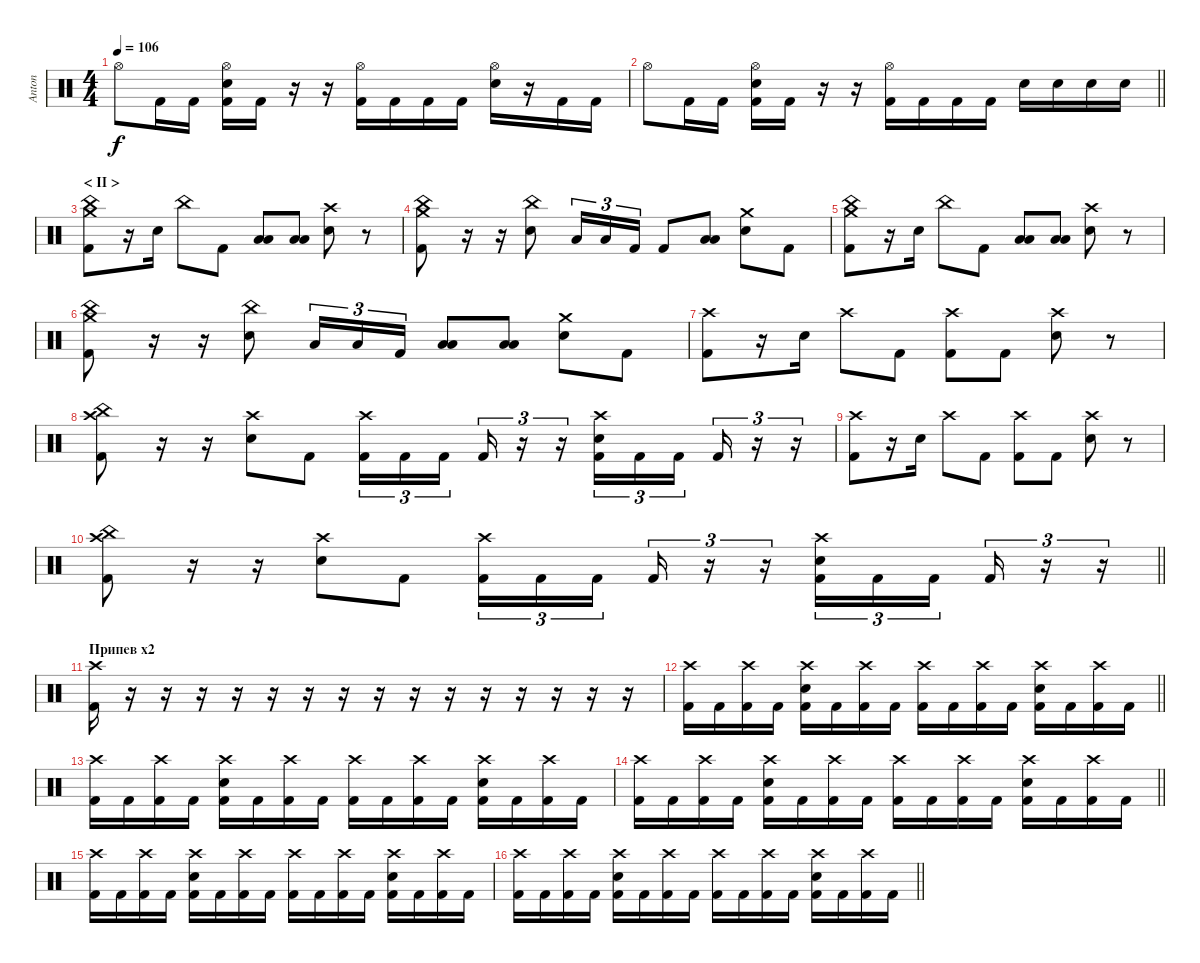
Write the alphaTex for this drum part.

\track ("Anton" "Anton") {instrument percussion}
\staff
\articulation defaults
\ts (4 4)
\tempo 106
\clef neutral
\ks c "Hi-Hat (open)".8{dy f} "Kick (hit) 2".16 "Kick (hit) 2".16
("Hi-Hat (open)" "Electric Snare (hit)" "Kick (hit) 2").16 "Kick (hit) 2".16 r.16 r.16 ("Hi-Hat (open)" "Kick (hit) 2").16 "Kick (hit) 2".16 "Kick (hit) 2".16 "Kick (hit) 2".16 ("Hi-Hat (open)" "Electric Snare (hit)").16 r.16 "Kick (hit) 2".16 "Kick (hit) 2".16 |
\barLineRight lightlight "Hi-Hat (open)".8 "Kick (hit) 2".16 "Kick (hit) 2".16
("Hi-Hat (open)" "Electric Snare (hit)" "Kick (hit) 2").16 "Kick (hit) 2".16 r.16 r.16 ("Hi-Hat (open)" "Kick (hit) 2").16 "Kick (hit) 2".16 "Kick (hit) 2".16 "Kick (hit) 2".16 "Electric Snare (hit)".16 "Electric Snare (hit)".16 "Electric Snare (hit)".16 "Electric Snare (hit)".16 |
\section ("" "< II >")
("Crash medium (hit)" "China (hit)" "Kick (hit) 2").8 r.16 "Electric Snare (hit)".16 "China (hit)".8 "Kick (hit) 2".8 ("Low Tom (hit)" "Low Floor Tom (hit)").8 ("Low Tom (hit)" "Low Floor Tom (hit)").8 ("Crash high (hit)" "Electric Snare (hit)").8 r.8 |
("Crash medium (hit)" "China (hit)" "Kick (hit) 2").8 r.16 r.16 ("China (hit)" "Electric Snare (hit)").8 "Low Floor Tom (hit)".16{tu (3 2)} "Low Floor Tom (hit)".16{tu (3 2)} "Kick (hit) 2".16{tu (3 2)} "Kick (hit) 2".8 ("Low Tom (hit)" "Low Floor Tom (hit)").8 ("Crash medium (hit)" "Electric Snare (hit)").8 "Kick (hit) 2".8 |
("Crash medium (hit)" "China (hit)" "Kick (hit) 2").8 r.16 "Electric Snare (hit)".16 "China (hit)".8 "Kick (hit) 2".8 ("Low Tom (hit)" "Low Floor Tom (hit)").8 ("Low Tom (hit)" "Low Floor Tom (hit)").8 ("Crash high (hit)" "Electric Snare (hit)").8 r.8 |
("Crash medium (hit)" "China (hit)" "Kick (hit) 2").8 r.16 r.16 ("China (hit)" "Electric Snare (hit)").8 "Low Floor Tom (hit)".16{tu (3 2)} "Low Floor Tom (hit)".16{tu (3 2)} "Kick (hit) 2".16{tu (3 2)} ("Low Tom (hit)" "Low Floor Tom (hit)").8 ("Low Tom (hit)" "Low Floor Tom (hit)").8 ("Crash medium (hit)" "Electric Snare (hit)").8 "Kick (hit) 2".8 |
("Crash high (hit)" "Kick (hit) 2").8 r.16 "Electric Snare (hit)".16 "Crash high (hit)".8 "Kick (hit) 2".8 ("Crash high (hit)" "Kick (hit) 2").8 "Kick (hit) 2".8 ("Crash high (hit)" "Electric Snare (hit)").8 r.8 |
("China (hit)" "Crash high (hit)" "Kick (hit) 2").8 r.16 r.16 ("Crash high (hit)" "Electric Snare (hit)").8 "Kick (hit) 2".8 ("Crash high (hit)" "Kick (hit) 2").16{tu (3 2)} "Kick (hit) 2".16{tu (3 2)} "Kick (hit) 2".16{tu (3 2) beam splitsecondary} "Kick (hit) 2".16{tu (3 2)} r.16{tu (3 2)} r.16{tu (3 2)} ("Crash high (hit)" "Electric Snare (hit)" "Kick (hit) 2").16{tu (3 2)} "Kick (hit) 2".16{tu (3 2)} "Kick (hit) 2".16{tu (3 2) beam splitsecondary} "Kick (hit) 2".16{tu (3 2)} r.16{tu (3 2)} r.16{tu (3 2)} |
("Crash high (hit)" "Kick (hit) 2").8 r.16 "Electric Snare (hit)".16 "Crash high (hit)".8 "Kick (hit) 2".8 ("Crash high (hit)" "Kick (hit) 2").8 "Kick (hit) 2".8 ("Crash high (hit)" "Electric Snare (hit)").8 r.8 |
\barLineRight lightlight
("China (hit)" "Crash high (hit)" "Kick (hit) 2").8 r.16 r.16 ("Crash high (hit)" "Electric Snare (hit)").8 "Kick (hit) 2".8 ("Crash high (hit)" "Kick (hit) 2").16{tu (3 2)} "Kick (hit) 2".16{tu (3 2)} "Kick (hit) 2".16{tu (3 2) beam splitsecondary} "Kick (hit) 2".16{tu (3 2)} r.16{tu (3 2)} r.16{tu (3 2)} ("Crash high (hit)" "Electric Snare (hit)" "Kick (hit) 2").16{tu (3 2)} "Kick (hit) 2".16{tu (3 2)} "Kick (hit) 2".16{tu (3 2) beam splitsecondary} "Kick (hit) 2".16{tu (3 2)} r.16{tu (3 2)} r.16{tu (3 2)} |
\section ("" "Припев х2")
("Crash high (hit)" "Kick (hit) 2").16 r.16 r.16 r.16 r.16 r.16 r.16 r.16 r.16 r.16 r.16 r.16 r.16 r.16 r.16 r.16 |
\barLineRight lightlight
("Crash high (hit)" "Kick (hit) 2").16 "Kick (hit) 2".16 ("Crash high (hit)" "Kick (hit) 2").16 "Kick (hit) 2".16 ("Crash high (hit)" "Electric Snare (hit)" "Kick (hit) 2").16 "Kick (hit) 2".16 ("Crash high (hit)" "Kick (hit) 2").16 "Kick (hit) 2".16 ("Crash high (hit)" "Kick (hit) 2").16 "Kick (hit) 2".16 ("Crash high (hit)" "Kick (hit) 2").16 "Kick (hit) 2".16 ("Crash high (hit)" "Electric Snare (hit)" "Kick (hit) 2").16 "Kick (hit) 2".16 ("Crash high (hit)" "Kick (hit) 2").16 "Kick (hit) 2".16 |
("Crash high (hit)" "Kick (hit) 2").16 "Kick (hit) 2".16 ("Crash high (hit)" "Kick (hit) 2").16 "Kick (hit) 2".16 ("Crash high (hit)" "Electric Snare (hit)" "Kick (hit) 2").16 "Kick (hit) 2".16 ("Crash high (hit)" "Kick (hit) 2").16 "Kick (hit) 2".16 ("Crash high (hit)" "Kick (hit) 2").16 "Kick (hit) 2".16 ("Crash high (hit)" "Kick (hit) 2").16 "Kick (hit) 2".16 ("Crash high (hit)" "Electric Snare (hit)" "Kick (hit) 2").16 "Kick (hit) 2".16 ("Crash high (hit)" "Kick (hit) 2").16 "Kick (hit) 2".16 |
\barLineRight lightlight
("Crash high (hit)" "Kick (hit) 2").16 "Kick (hit) 2".16 ("Crash high (hit)" "Kick (hit) 2").16 "Kick (hit) 2".16 ("Crash high (hit)" "Electric Snare (hit)" "Kick (hit) 2").16 "Kick (hit) 2".16 ("Crash high (hit)" "Kick (hit) 2").16 "Kick (hit) 2".16 ("Crash high (hit)" "Kick (hit) 2").16 "Kick (hit) 2".16 ("Crash high (hit)" "Kick (hit) 2").16 "Kick (hit) 2".16 ("Crash high (hit)" "Electric Snare (hit)" "Kick (hit) 2").16 "Kick (hit) 2".16 ("Crash high (hit)" "Kick (hit) 2").16 "Kick (hit) 2".16 |
("Crash high (hit)" "Kick (hit) 2").16 "Kick (hit) 2".16 ("Crash high (hit)" "Kick (hit) 2").16 "Kick (hit) 2".16 ("Crash high (hit)" "Electric Snare (hit)" "Kick (hit) 2").16 "Kick (hit) 2".16 ("Crash high (hit)" "Kick (hit) 2").16 "Kick (hit) 2".16 ("Crash high (hit)" "Kick (hit) 2").16 "Kick (hit) 2".16 ("Crash high (hit)" "Kick (hit) 2").16 "Kick (hit) 2".16 ("Crash high (hit)" "Electric Snare (hit)" "Kick (hit) 2").16 "Kick (hit) 2".16 ("Crash high (hit)" "Kick (hit) 2").16 "Kick (hit) 2".16 |
\barLineRight lightlight
("Crash high (hit)" "Kick (hit) 2").16 "Kick (hit) 2".16 ("Crash high (hit)" "Kick (hit) 2").16 "Kick (hit) 2".16 ("Crash high (hit)" "Electric Snare (hit)" "Kick (hit) 2").16 "Kick (hit) 2".16 ("Crash high (hit)" "Kick (hit) 2").16 "Kick (hit) 2".16 ("Crash high (hit)" "Kick (hit) 2").16 "Kick (hit) 2".16 ("Crash high (hit)" "Kick (hit) 2").16 "Kick (hit) 2".16 ("Crash high (hit)" "Electric Snare (hit)" "Kick (hit) 2").16 "Kick (hit) 2".16 ("Crash high (hit)" "Kick (hit) 2").16 "Kick (hit) 2".16
